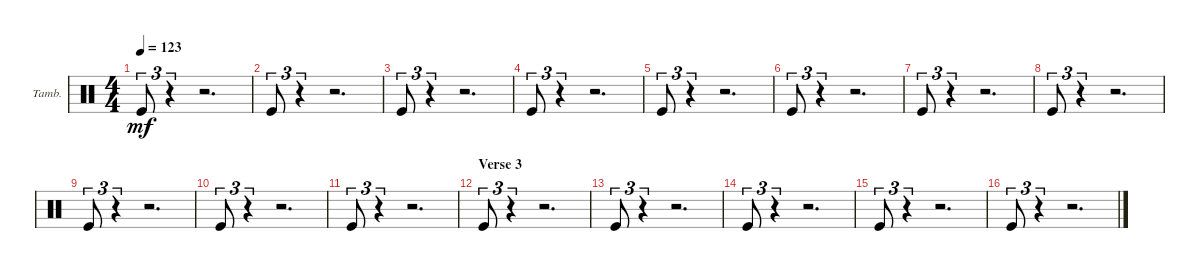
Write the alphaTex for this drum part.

\defaultSystemsLayout 4
\bracketExtendMode groupsimilarinstruments
\firstSystemTrackNameOrientation horizontal
\otherSystemsTrackNameOrientation horizontal
\track ("Tambourine" "Tamb.") {multiBarRest instrument percussion}
\staff {score}
\articulation defaults
\ts (4 4)
\tempo 123
\clef neutral
\ks c "Kick (hit)".8{tu (3 2) dy mf}
r.4{tu (3 2)} r.2{d} |
"Kick (hit)".8{tu (3 2)} r.4{tu (3 2)} r.2{d} |
"Kick (hit)".8{tu (3 2)} r.4{tu (3 2)} r.2{d} |
"Kick (hit)".8{tu (3 2)} r.4{tu (3 2)} r.2{d} |
"Kick (hit)".8{tu (3 2)} r.4{tu (3 2)} r.2{d} |
"Kick (hit)".8{tu (3 2)} r.4{tu (3 2)} r.2{d} |
"Kick (hit)".8{tu (3 2)} r.4{tu (3 2)} r.2{d} |
"Kick (hit)".8{tu (3 2)} r.4{tu (3 2)} r.2{d} |
"Kick (hit)".8{tu (3 2)} r.4{tu (3 2)} r.2{d} |
"Kick (hit)".8{tu (3 2)} r.4{tu (3 2)} r.2{d} |
"Kick (hit)".8{tu (3 2)} r.4{tu (3 2)} r.2{d} |
\section ("" "Verse 3")
"Kick (hit)".8{tu (3 2)} r.4{tu (3 2)} r.2{d} |
"Kick (hit)".8{tu (3 2)} r.4{tu (3 2)} r.2{d} |
"Kick (hit)".8{tu (3 2)} r.4{tu (3 2)} r.2{d} |
"Kick (hit)".8{tu (3 2)} r.4{tu (3 2)} r.2{d} |
"Kick (hit)".8{tu (3 2)} r.4{tu (3 2)} r.2{d}
